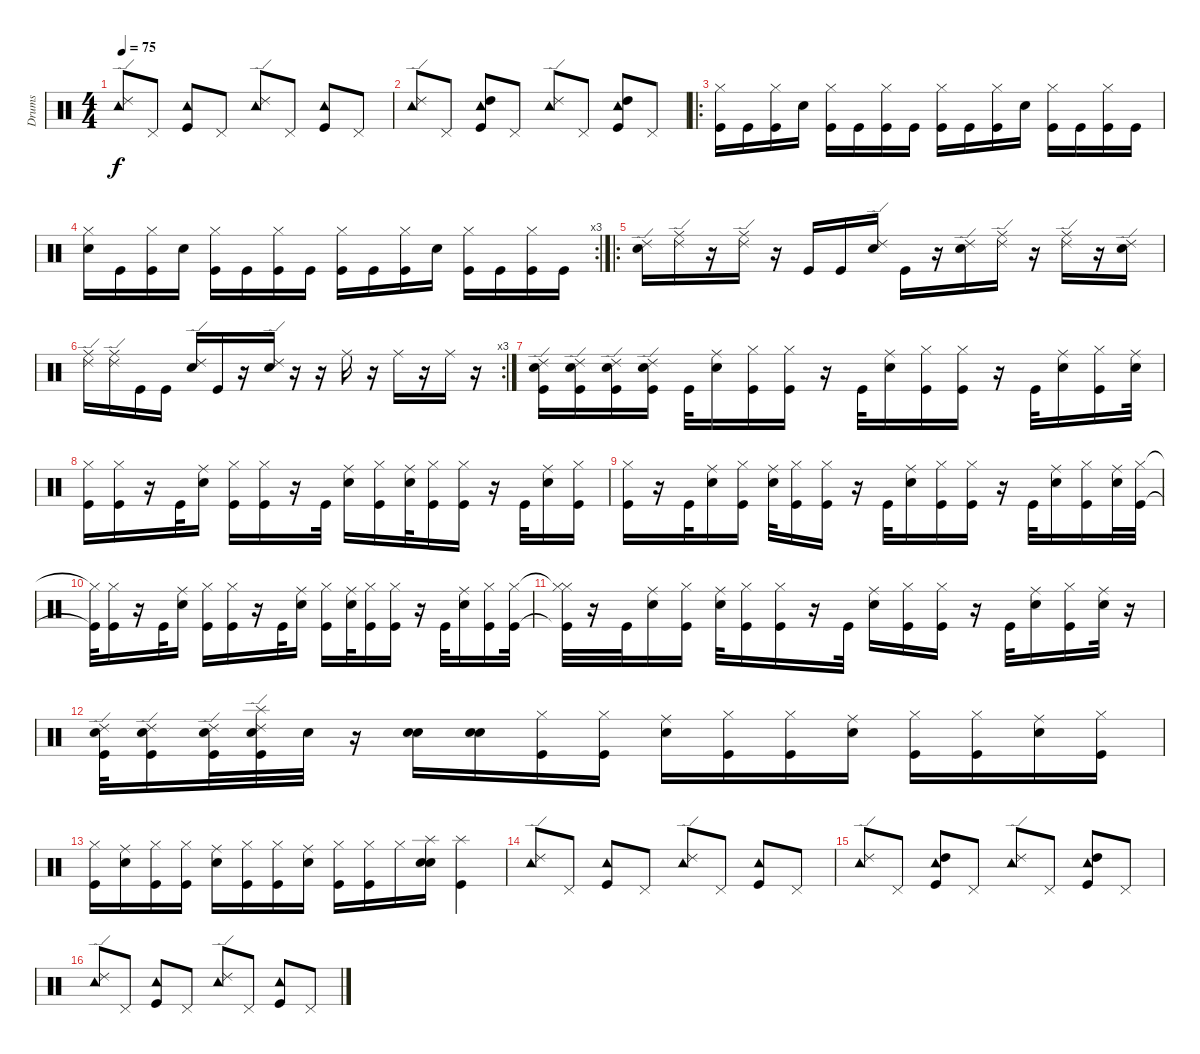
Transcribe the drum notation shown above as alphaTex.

\track ("Drums" "Drums") {instrument percussion}
\staff {score}
\articulation defaults
\ts (4 4)
\tempo 75
\clef neutral
\ks c
("Ride (edge) 2" "Tambourine (hit)").8{dy f} "Pedal Hi-Hat (hit)".8 ("Kick (hit)" "Tambourine (hit)").8 "Pedal Hi-Hat (hit)".8 ("Ride (edge) 2" "Tambourine (hit)").8 "Pedal Hi-Hat (hit)".8 ("Kick (hit)" "Tambourine (hit)").8 "Pedal Hi-Hat (hit)".8 |
("Ride (edge) 2" "Tambourine (hit)").8 "Pedal Hi-Hat (hit)".8 ("High Tom (hit)" "Kick (hit)" "Tambourine (hit)").8 "Pedal Hi-Hat (hit)".8 ("Ride (edge) 2" "Tambourine (hit)").8 "Pedal Hi-Hat (hit)".8 ("High Tom (hit)" "Kick (hit)" "Tambourine (hit)").8 "Pedal Hi-Hat (hit)".8 |
\ro
("Kick (hit)" "Hi-Hat (closed)").16 "Kick (hit)".16 ("Kick (hit)" "Hi-Hat (closed)").16 "Snare (hit) 2".16 ("Kick (hit)" "Hi-Hat (closed)").16 "Kick (hit)".16 ("Kick (hit)" "Hi-Hat (closed)").16 "Kick (hit)".16 ("Kick (hit)" "Hi-Hat (closed)").16 "Kick (hit)".16 ("Kick (hit)" "Hi-Hat (closed)").16 "Snare (hit) 2".16 ("Kick (hit)" "Hi-Hat (closed)").16 "Kick (hit)".16 ("Kick (hit)" "Hi-Hat (closed)").16 "Kick (hit)".16 |
\rc 3
("Snare (hit) 2" "Hi-Hat (closed)").16 "Kick (hit)".16 ("Kick (hit)" "Hi-Hat (closed)").16 "Snare (hit) 2".16 ("Kick (hit)" "Hi-Hat (closed)").16 "Kick (hit)".16 ("Kick (hit)" "Hi-Hat (closed)").16 "Kick (hit)".16 ("Kick (hit)" "Hi-Hat (closed)").16 "Kick (hit)".16 ("Kick (hit)" "Hi-Hat (closed)").16 "Snare (hit) 2".16 ("Kick (hit)" "Hi-Hat (closed)").16 "Kick (hit)".16 ("Kick (hit)" "Hi-Hat (closed)").16 "Kick (hit)".16 |
\ro
("Ride (edge) 2" "Snare (hit) 2").16 ("Ride (middle)" "Ride (edge) 2").16 r.16 ("Ride (middle)" "Ride (edge) 2").16 r.16 "Kick (hit)".16 "Kick (hit)".16 ("Ride (edge) 2" "Snare (hit) 2").16 "Kick (hit)".16 r.16 ("Ride (edge) 2" "Snare (hit) 2").16 ("Ride (middle)" "Ride (edge) 2").16 r.16 ("Ride (middle)" "Ride (edge) 2").16 r.16 ("Ride (edge) 2" "Snare (hit) 2").16 |
\rc 3
("Ride (middle)" "Ride (edge) 2").16 ("Ride (middle)" "Ride (edge) 2").16 "Kick (hit)".16 "Kick (hit)".16 ("Ride (edge) 2" "Snare (hit) 2").16 "Kick (hit)".16 r.16 ("Ride (edge) 2" "Snare (hit) 2").16 r.16 r.16 "Ride (middle)".16 r.16 "Ride (middle)".16 r.16 "Ride (middle)".16 r.16 |
("Snare (hit) 2" "Ride (edge) 2" "Kick (hit)").16 ("Snare (hit) 2" "Ride (edge) 2" "Kick (hit)").16 ("Electric Snare (hit)" "Ride (edge) 2" "Kick (hit)").16 ("Electric Snare (hit)" "Ride (edge) 2" "Kick (hit)").16 "Kick (hit)".32 ("Ride (middle)" "Snare (hit) 2").16 ("Kick (hit)" "Hi-Hat (closed)").16 ("Kick (hit)" "Hi-Hat (closed)").16 r.16 "Kick (hit)".32 ("Ride (middle)" "Snare (hit) 2").16 ("Kick (hit)" "Hi-Hat (closed)").16 ("Kick (hit)" "Hi-Hat (closed)").16 r.16 "Kick (hit)".32 ("Ride (middle)" "Snare (hit) 2").16 ("Kick (hit)" "Hi-Hat (closed)").16 ("Ride (middle)" "Snare (hit) 2").32 |
("Kick (hit)" "Hi-Hat (closed)").16 ("Kick (hit)" "Hi-Hat (closed)").16 r.16 "Kick (hit)".32 ("Ride (middle)" "Snare (hit) 2").16 ("Kick (hit)" "Hi-Hat (closed)").16 ("Kick (hit)" "Hi-Hat (closed)").16 r.16 "Kick (hit)".32 ("Ride (middle)" "Snare (hit) 2").16 ("Kick (hit)" "Hi-Hat (closed)").16 ("Ride (middle)" "Snare (hit) 2").32 ("Kick (hit)" "Hi-Hat (closed)").16 ("Kick (hit)" "Hi-Hat (closed)").16 r.16 "Kick (hit)".32 ("Ride (middle)" "Snare (hit) 2").16 ("Kick (hit)" "Hi-Hat (closed)").16 |
("Kick (hit)" "Hi-Hat (closed)").16 r.16 "Kick (hit)".32 ("Ride (middle)" "Snare (hit) 2").16 ("Kick (hit)" "Hi-Hat (closed)").16 ("Ride (middle)" "Snare (hit) 2").32 ("Kick (hit)" "Hi-Hat (closed)").16 ("Kick (hit)" "Hi-Hat (closed)").16 r.16 "Kick (hit)".32 ("Ride (middle)" "Snare (hit) 2").16 ("Kick (hit)" "Hi-Hat (closed)").16 ("Kick (hit)" "Hi-Hat (closed)").16 r.16 "Kick (hit)".32 ("Ride (middle)" "Snare (hit) 2").16 ("Kick (hit)" "Hi-Hat (closed)").16 ("Ride (middle)" "Snare (hit) 2").32 ("Kick (hit)" "Hi-Hat (closed)").32 |
("Kick (hit)"{t} "Hi-Hat (closed)"{t}).32 ("Kick (hit)" "Hi-Hat (closed)").16 r.16 "Kick (hit)".32 ("Ride (middle)" "Snare (hit) 2").16 ("Kick (hit)" "Hi-Hat (closed)").16 ("Kick (hit)" "Hi-Hat (closed)").16 r.16 "Kick (hit)".32 ("Ride (middle)" "Snare (hit) 2").16 ("Kick (hit)" "Hi-Hat (closed)").16 ("Ride (middle)" "Snare (hit) 2").32 ("Kick (hit)" "Hi-Hat (closed)").16 ("Kick (hit)" "Hi-Hat (closed)").16 r.16 "Kick (hit)".32 ("Ride (middle)" "Snare (hit) 2").16 ("Kick (hit)" "Hi-Hat (closed)").16 ("Kick (hit)" "Hi-Hat (closed)").32 |
("Kick (hit)"{t} "Hi-Hat (closed)"{t} "Hi-Hat (closed)").32 r.16 "Kick (hit)".32 ("Ride (middle)" "Snare (hit) 2").16 ("Kick (hit)" "Hi-Hat (closed)").16 ("Ride (middle)" "Snare (hit) 2").32 ("Kick (hit)" "Hi-Hat (closed)").16 ("Kick (hit)" "Hi-Hat (closed)").16 r.16 "Kick (hit)".32 ("Ride (middle)" "Snare (hit) 2").16 ("Kick (hit)" "Hi-Hat (closed)").16 ("Kick (hit)" "Hi-Hat (closed)").16 r.16 "Kick (hit)".32 ("Ride (middle)" "Snare (hit) 2").16 ("Kick (hit)" "Hi-Hat (closed)").16 ("Ride (middle)" "Snare (hit) 2").32 r.16 |
("Electric Snare (hit)" "Ride (edge) 2" "Kick (hit)").32 ("Snare (hit) 2" "Ride (edge) 2" "Kick (hit)").16 ("Electric Snare (hit)" "Ride (edge) 2" "Kick (hit)").32 ("Splash (hit)" "Electric Snare (hit)" "Ride (edge) 2" "Kick (hit)").32 "Snare (hit) 2".32 r.16 ("Electric Snare (hit)" "Electric Snare (hit)").16 ("Snare (hit) 2" "Snare (hit) 2").16 ("Kick (hit)" "Hi-Hat (closed)").16 ("Kick (hit)" "Hi-Hat (closed)").16 ("Ride (middle)" "Snare (hit) 2").16 ("Kick (hit)" "Hi-Hat (closed)").16 ("Kick (hit)" "Hi-Hat (closed)").16 ("Ride (middle)" "Electric Snare (hit)").16 ("Kick (hit)" "Hi-Hat (closed)").16 ("Kick (hit)" "Hi-Hat (closed)").16 ("Ride (middle)" "Snare (hit) 2").16 ("Kick (hit)" "Hi-Hat (closed)").16 |
("Kick (hit)" "Hi-Hat (closed)").16 ("Ride (middle)" "Electric Snare (hit)").16 ("Kick (hit)" "Hi-Hat (closed)").16 ("Kick (hit)" "Hi-Hat (closed)").16 ("Ride (middle)" "Snare (hit) 2").16 ("Kick (hit)" "Hi-Hat (closed)").16 ("Kick (hit)" "Hi-Hat (closed)").16 ("Ride (middle)" "Electric Snare (hit)").16 ("Kick (hit)" "Hi-Hat (closed)").16 ("Kick (hit)" "Hi-Hat (closed)").16 "Hi-Hat (closed)".16 ("Splash (hit)" "Electric Snare (hit)" "Electric Snare (hit)").16 ("Splash (hit)" "Kick (hit)").4 |
("Ride (edge) 2" "Tambourine (hit)").8 "Pedal Hi-Hat (hit)".8 ("Kick (hit)" "Tambourine (hit)").8 "Pedal Hi-Hat (hit)".8 ("Ride (edge) 2" "Tambourine (hit)").8 "Pedal Hi-Hat (hit)".8 ("Kick (hit)" "Tambourine (hit)").8 "Pedal Hi-Hat (hit)".8 |
("Ride (edge) 2" "Tambourine (hit)").8 "Pedal Hi-Hat (hit)".8 ("High Tom (hit)" "Kick (hit)" "Tambourine (hit)").8 "Pedal Hi-Hat (hit)".8 ("Ride (edge) 2" "Tambourine (hit)").8 "Pedal Hi-Hat (hit)".8 ("High Tom (hit)" "Kick (hit)" "Tambourine (hit)").8 "Pedal Hi-Hat (hit)".8 |
("Ride (edge) 2" "Tambourine (hit)").8 "Pedal Hi-Hat (hit)".8 ("Kick (hit)" "Tambourine (hit)").8 "Pedal Hi-Hat (hit)".8 ("Ride (edge) 2" "Tambourine (hit)").8 "Pedal Hi-Hat (hit)".8 ("Kick (hit)" "Tambourine (hit)").8 "Pedal Hi-Hat (hit)".8
